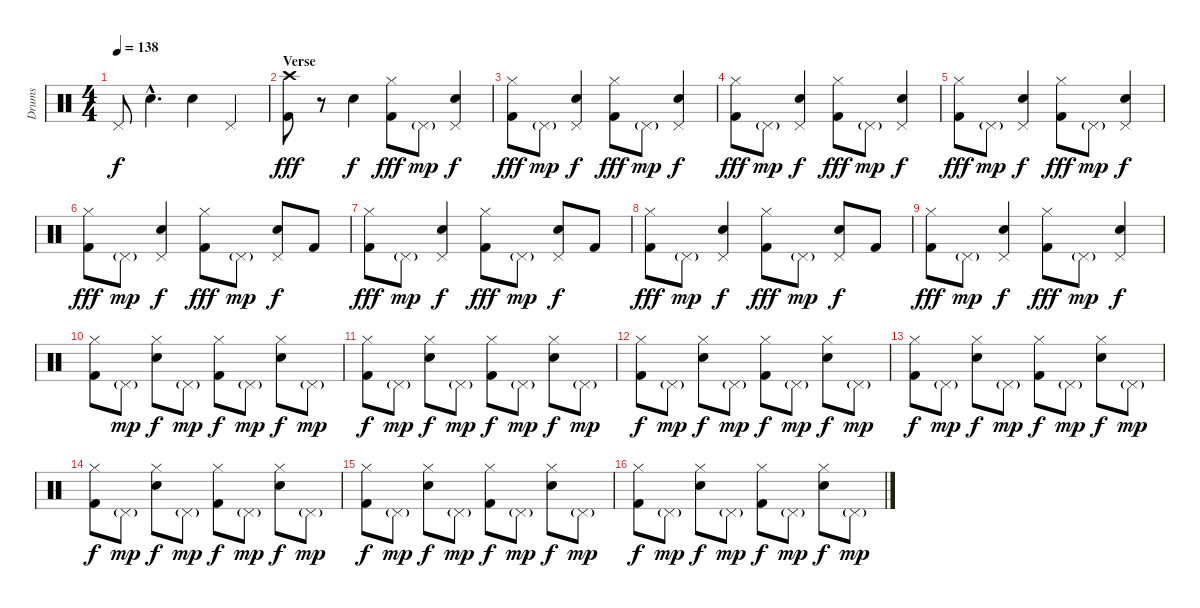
\track ("Drums" "Drums") {instrument percussion}
\staff {score}
\articulation defaults
\ts (4 4)
\tempo 138
\clef neutral
\ks c "Pedal Hi-Hat (hit)".8{dy f} "Snare (hit) 2"{hac}.4{d} "Snare (hit) 2".4 "Pedal Hi-Hat (hit)".4
|
\section ("" "Verse")
("Crash high (hit)" "Kick (hit) 2").8{dy fff} r.8 "Snare (hit) 2".4{dy f} ("Hi-Hat (closed)" "Kick (hit) 2").8{dy fff} "Pedal Hi-Hat (hit)"{g}.8{dy mp} ("Pedal Hi-Hat (hit)" "Snare (hit) 2").4{dy f} |
("Hi-Hat (closed)" "Kick (hit) 2").8{dy fff} "Pedal Hi-Hat (hit)"{g}.8{dy mp} ("Pedal Hi-Hat (hit)" "Snare (hit) 2").4{dy f} ("Hi-Hat (closed)" "Kick (hit) 2").8{dy fff} "Pedal Hi-Hat (hit)"{g}.8{dy mp} ("Pedal Hi-Hat (hit)" "Snare (hit) 2").4{dy f} |
("Hi-Hat (closed)" "Kick (hit) 2").8{dy fff} "Pedal Hi-Hat (hit)"{g}.8{dy mp} ("Pedal Hi-Hat (hit)" "Snare (hit) 2").4{dy f} ("Hi-Hat (closed)" "Kick (hit) 2").8{dy fff} "Pedal Hi-Hat (hit)"{g}.8{dy mp} ("Pedal Hi-Hat (hit)" "Snare (hit) 2").4{dy f} |
("Hi-Hat (closed)" "Kick (hit) 2").8{dy fff} "Pedal Hi-Hat (hit)"{g}.8{dy mp} ("Pedal Hi-Hat (hit)" "Snare (hit) 2").4{dy f} ("Hi-Hat (closed)" "Kick (hit) 2").8{dy fff} "Pedal Hi-Hat (hit)"{g}.8{dy mp} ("Pedal Hi-Hat (hit)" "Snare (hit) 2").4{dy f} |
("Hi-Hat (closed)" "Kick (hit) 2").8{dy fff} "Pedal Hi-Hat (hit)"{g}.8{dy mp} ("Pedal Hi-Hat (hit)" "Snare (hit) 2").4{dy f} ("Hi-Hat (closed)" "Kick (hit) 2").8{dy fff} "Pedal Hi-Hat (hit)"{g}.8{dy mp} ("Pedal Hi-Hat (hit)" "Snare (hit) 2").8{dy f} "Kick (hit) 2".8 |
("Hi-Hat (closed)" "Kick (hit) 2").8{dy fff} "Pedal Hi-Hat (hit)"{g}.8{dy mp} ("Pedal Hi-Hat (hit)" "Snare (hit) 2").4{dy f} ("Hi-Hat (closed)" "Kick (hit) 2").8{dy fff} "Pedal Hi-Hat (hit)"{g}.8{dy mp} ("Pedal Hi-Hat (hit)" "Snare (hit) 2").8{dy f} "Kick (hit) 2".8 |
("Hi-Hat (closed)" "Kick (hit) 2").8{dy fff} "Pedal Hi-Hat (hit)"{g}.8{dy mp} ("Pedal Hi-Hat (hit)" "Snare (hit) 2").4{dy f} ("Hi-Hat (closed)" "Kick (hit) 2").8{dy fff} "Pedal Hi-Hat (hit)"{g}.8{dy mp} ("Pedal Hi-Hat (hit)" "Snare (hit) 2").8{dy f} "Kick (hit) 2".8 |
("Hi-Hat (closed)" "Kick (hit) 2").8{dy fff} "Pedal Hi-Hat (hit)"{g}.8{dy mp} ("Pedal Hi-Hat (hit)" "Snare (hit) 2").4{dy f} ("Hi-Hat (closed)" "Kick (hit) 2").8{dy fff} "Pedal Hi-Hat (hit)"{g}.8{dy mp} ("Pedal Hi-Hat (hit)" "Snare (hit) 2").4{dy f} |
("Hi-Hat (closed)" "Kick (hit) 2").8 "Pedal Hi-Hat (hit)"{g}.8{dy mp} ("Hi-Hat (closed)" "Snare (hit) 2").8{dy f} "Pedal Hi-Hat (hit)"{g}.8{dy mp} ("Hi-Hat (closed)" "Kick (hit) 2").8{dy f} "Pedal Hi-Hat (hit)"{g}.8{dy mp} ("Hi-Hat (closed)" "Snare (hit) 2").8{dy f} "Pedal Hi-Hat (hit)"{g}.8{dy mp} |
("Hi-Hat (closed)" "Kick (hit) 2").8{dy f} "Pedal Hi-Hat (hit)"{g}.8{dy mp} ("Hi-Hat (closed)" "Snare (hit) 2").8{dy f} "Pedal Hi-Hat (hit)"{g}.8{dy mp} ("Hi-Hat (closed)" "Kick (hit) 2").8{dy f} "Pedal Hi-Hat (hit)"{g}.8{dy mp} ("Hi-Hat (closed)" "Snare (hit) 2").8{dy f} "Pedal Hi-Hat (hit)"{g}.8{dy mp} |
("Hi-Hat (closed)" "Kick (hit) 2").8{dy f} "Pedal Hi-Hat (hit)"{g}.8{dy mp} ("Hi-Hat (closed)" "Snare (hit) 2").8{dy f} "Pedal Hi-Hat (hit)"{g}.8{dy mp} ("Hi-Hat (closed)" "Kick (hit) 2").8{dy f} "Pedal Hi-Hat (hit)"{g}.8{dy mp} ("Hi-Hat (closed)" "Snare (hit) 2").8{dy f} "Pedal Hi-Hat (hit)"{g}.8{dy mp} |
("Hi-Hat (closed)" "Kick (hit) 2").8{dy f} "Pedal Hi-Hat (hit)"{g}.8{dy mp} ("Hi-Hat (closed)" "Snare (hit) 2").8{dy f} "Pedal Hi-Hat (hit)"{g}.8{dy mp} ("Hi-Hat (closed)" "Kick (hit) 2").8{dy f} "Pedal Hi-Hat (hit)"{g}.8{dy mp} ("Hi-Hat (closed)" "Snare (hit) 2").8{dy f} "Pedal Hi-Hat (hit)"{g}.8{dy mp} |
("Hi-Hat (closed)" "Kick (hit) 2").8{dy f} "Pedal Hi-Hat (hit)"{g}.8{dy mp} ("Hi-Hat (closed)" "Snare (hit) 2").8{dy f} "Pedal Hi-Hat (hit)"{g}.8{dy mp} ("Hi-Hat (closed)" "Kick (hit) 2").8{dy f} "Pedal Hi-Hat (hit)"{g}.8{dy mp} ("Hi-Hat (closed)" "Snare (hit) 2").8{dy f} "Pedal Hi-Hat (hit)"{g}.8{dy mp} |
("Hi-Hat (closed)" "Kick (hit) 2").8{dy f} "Pedal Hi-Hat (hit)"{g}.8{dy mp} ("Hi-Hat (closed)" "Snare (hit) 2").8{dy f} "Pedal Hi-Hat (hit)"{g}.8{dy mp} ("Hi-Hat (closed)" "Kick (hit) 2").8{dy f} "Pedal Hi-Hat (hit)"{g}.8{dy mp} ("Hi-Hat (closed)" "Snare (hit) 2").8{dy f} "Pedal Hi-Hat (hit)"{g}.8{dy mp} |
("Hi-Hat (closed)" "Kick (hit) 2").8{dy f} "Pedal Hi-Hat (hit)"{g}.8{dy mp} ("Hi-Hat (closed)" "Snare (hit) 2").8{dy f} "Pedal Hi-Hat (hit)"{g}.8{dy mp} ("Hi-Hat (closed)" "Kick (hit) 2").8{dy f} "Pedal Hi-Hat (hit)"{g}.8{dy mp} ("Hi-Hat (closed)" "Snare (hit) 2").8{dy f} "Pedal Hi-Hat (hit)"{g}.8{dy mp}
